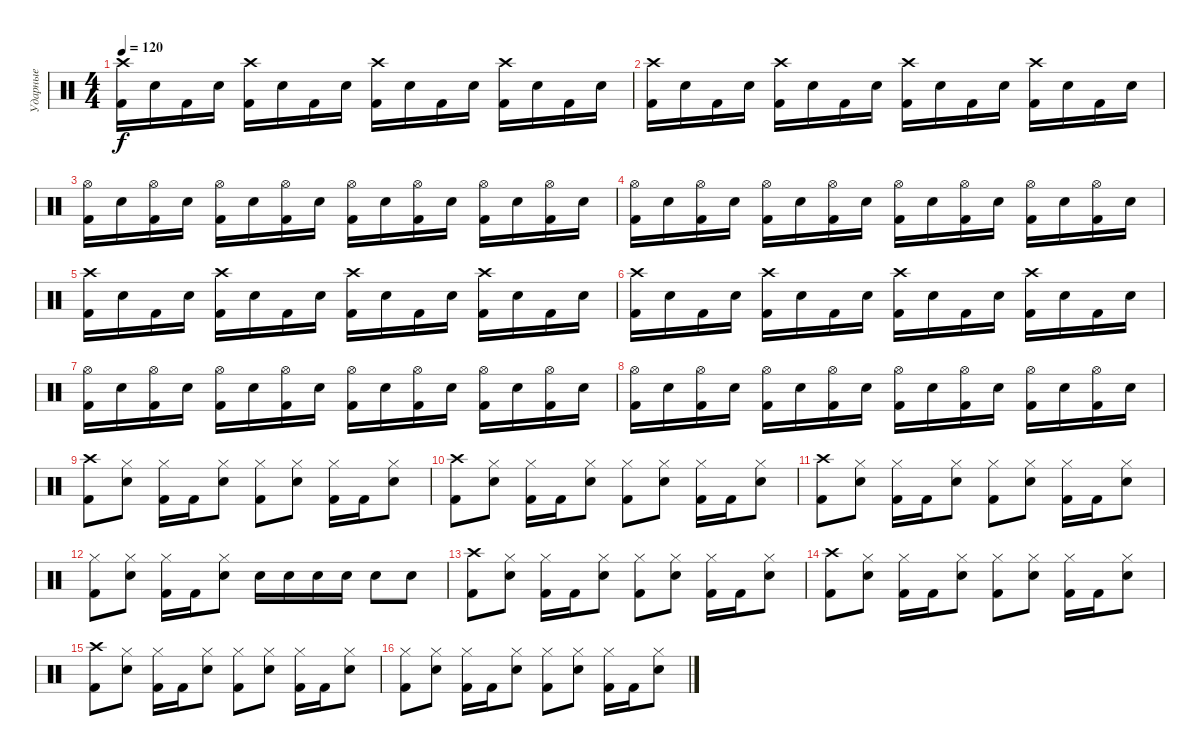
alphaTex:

\track ("Ударные" "Ударные") {instrument percussion}
\staff {score}
\articulation defaults
\ts (4 4)
\tempo 120
\clef neutral
\ks c
("Crash high (hit)" "Kick (hit) 2").16{dy f} "Electric Snare (hit)".16 "Kick (hit) 2".16 "Electric Snare (hit)".16 ("Crash high (hit)" "Kick (hit) 2").16 "Electric Snare (hit)".16 "Kick (hit) 2".16 "Electric Snare (hit)".16 ("Crash high (hit)" "Kick (hit) 2").16 "Electric Snare (hit)".16 "Kick (hit) 2".16 "Electric Snare (hit)".16 ("Crash high (hit)" "Kick (hit) 2").16 "Electric Snare (hit)".16 "Kick (hit) 2".16 "Electric Snare (hit)".16 |
("Crash high (hit)" "Kick (hit) 2").16 "Electric Snare (hit)".16 "Kick (hit) 2".16 "Electric Snare (hit)".16 ("Crash high (hit)" "Kick (hit) 2").16 "Electric Snare (hit)".16 "Kick (hit) 2".16 "Electric Snare (hit)".16 ("Crash high (hit)" "Kick (hit) 2").16 "Electric Snare (hit)".16 "Kick (hit) 2".16 "Electric Snare (hit)".16 ("Crash high (hit)" "Kick (hit) 2").16 "Electric Snare (hit)".16 "Kick (hit) 2".16 "Electric Snare (hit)".16 |
("Hi-Hat (open)" "Kick (hit) 2").16 "Electric Snare (hit)".16 ("Hi-Hat (open)" "Kick (hit) 2").16 "Electric Snare (hit)".16 ("Hi-Hat (open)" "Kick (hit) 2").16 "Electric Snare (hit)".16 ("Hi-Hat (open)" "Kick (hit) 2").16 "Electric Snare (hit)".16 ("Hi-Hat (open)" "Kick (hit) 2").16 "Electric Snare (hit)".16 ("Hi-Hat (open)" "Kick (hit) 2").16 "Electric Snare (hit)".16 ("Hi-Hat (open)" "Kick (hit) 2").16 "Electric Snare (hit)".16 ("Hi-Hat (open)" "Kick (hit) 2").16 "Electric Snare (hit)".16 |
("Hi-Hat (open)" "Kick (hit) 2").16 "Electric Snare (hit)".16 ("Hi-Hat (open)" "Kick (hit) 2").16 "Electric Snare (hit)".16 ("Hi-Hat (open)" "Kick (hit) 2").16 "Electric Snare (hit)".16 ("Hi-Hat (open)" "Kick (hit) 2").16 "Electric Snare (hit)".16 ("Hi-Hat (open)" "Kick (hit) 2").16 "Electric Snare (hit)".16 ("Hi-Hat (open)" "Kick (hit) 2").16 "Electric Snare (hit)".16 ("Hi-Hat (open)" "Kick (hit) 2").16 "Electric Snare (hit)".16 ("Hi-Hat (open)" "Kick (hit) 2").16 "Electric Snare (hit)".16 |
("Crash high (hit)" "Kick (hit) 2").16 "Electric Snare (hit)".16 "Kick (hit) 2".16 "Electric Snare (hit)".16 ("Crash high (hit)" "Kick (hit) 2").16 "Electric Snare (hit)".16 "Kick (hit) 2".16 "Electric Snare (hit)".16 ("Crash high (hit)" "Kick (hit) 2").16 "Electric Snare (hit)".16 "Kick (hit) 2".16 "Electric Snare (hit)".16 ("Crash high (hit)" "Kick (hit) 2").16 "Electric Snare (hit)".16 "Kick (hit) 2".16 "Electric Snare (hit)".16 |
("Crash high (hit)" "Kick (hit) 2").16 "Electric Snare (hit)".16 "Kick (hit) 2".16 "Electric Snare (hit)".16 ("Crash high (hit)" "Kick (hit) 2").16 "Electric Snare (hit)".16 "Kick (hit) 2".16 "Electric Snare (hit)".16 ("Crash high (hit)" "Kick (hit) 2").16 "Electric Snare (hit)".16 "Kick (hit) 2".16 "Electric Snare (hit)".16 ("Crash high (hit)" "Kick (hit) 2").16 "Electric Snare (hit)".16 "Kick (hit) 2".16 "Electric Snare (hit)".16 |
("Hi-Hat (open)" "Kick (hit) 2").16 "Electric Snare (hit)".16 ("Hi-Hat (open)" "Kick (hit) 2").16 "Electric Snare (hit)".16 ("Hi-Hat (open)" "Kick (hit) 2").16 "Electric Snare (hit)".16 ("Hi-Hat (open)" "Kick (hit) 2").16 "Electric Snare (hit)".16 ("Hi-Hat (open)" "Kick (hit) 2").16 "Electric Snare (hit)".16 ("Hi-Hat (open)" "Kick (hit) 2").16 "Electric Snare (hit)".16 ("Hi-Hat (open)" "Kick (hit) 2").16 "Electric Snare (hit)".16 ("Hi-Hat (open)" "Kick (hit) 2").16 "Electric Snare (hit)".16 |
("Hi-Hat (open)" "Kick (hit) 2").16 "Electric Snare (hit)".16 ("Hi-Hat (open)" "Kick (hit) 2").16 "Electric Snare (hit)".16 ("Hi-Hat (open)" "Kick (hit) 2").16 "Electric Snare (hit)".16 ("Hi-Hat (open)" "Kick (hit) 2").16 "Electric Snare (hit)".16 ("Hi-Hat (open)" "Kick (hit) 2").16 "Electric Snare (hit)".16 ("Hi-Hat (open)" "Kick (hit) 2").16 "Electric Snare (hit)".16 ("Hi-Hat (open)" "Kick (hit) 2").16 "Electric Snare (hit)".16 ("Hi-Hat (open)" "Kick (hit) 2").16 "Electric Snare (hit)".16 |
("Crash high (hit)" "Kick (hit) 2").8 ("Hi-Hat (closed)" "Electric Snare (hit)").8 ("Hi-Hat (closed)" "Kick (hit) 2").16 "Kick (hit) 2".16 ("Hi-Hat (closed)" "Electric Snare (hit)").8 ("Hi-Hat (closed)" "Kick (hit) 2").8 ("Hi-Hat (closed)" "Electric Snare (hit)").8 ("Hi-Hat (closed)" "Kick (hit) 2").16 "Kick (hit) 2".16 ("Hi-Hat (closed)" "Electric Snare (hit)").8 |
("Crash high (hit)" "Kick (hit) 2").8 ("Hi-Hat (closed)" "Electric Snare (hit)").8 ("Hi-Hat (closed)" "Kick (hit) 2").16 "Kick (hit) 2".16 ("Hi-Hat (closed)" "Electric Snare (hit)").8 ("Hi-Hat (closed)" "Kick (hit) 2").8 ("Hi-Hat (closed)" "Electric Snare (hit)").8 ("Hi-Hat (closed)" "Kick (hit) 2").16 "Kick (hit) 2".16 ("Hi-Hat (closed)" "Electric Snare (hit)").8 |
("Crash high (hit)" "Kick (hit) 2").8 ("Hi-Hat (closed)" "Electric Snare (hit)").8 ("Hi-Hat (closed)" "Kick (hit) 2").16 "Kick (hit) 2".16 ("Hi-Hat (closed)" "Electric Snare (hit)").8 ("Hi-Hat (closed)" "Kick (hit) 2").8 ("Hi-Hat (closed)" "Electric Snare (hit)").8 ("Hi-Hat (closed)" "Kick (hit) 2").16 "Kick (hit) 2".16 ("Hi-Hat (closed)" "Electric Snare (hit)").8 |
("Hi-Hat (closed)" "Kick (hit) 2").8 ("Hi-Hat (closed)" "Electric Snare (hit)").8 ("Hi-Hat (closed)" "Kick (hit) 2").16 "Kick (hit) 2".16 ("Hi-Hat (closed)" "Electric Snare (hit)").8 "Electric Snare (hit)".16 "Electric Snare (hit)".16 "Electric Snare (hit)".16 "Electric Snare (hit)".16 "Electric Snare (hit)".8 "Electric Snare (hit)".8 |
("Crash high (hit)" "Kick (hit) 2").8 ("Hi-Hat (closed)" "Electric Snare (hit)").8 ("Hi-Hat (closed)" "Kick (hit) 2").16 "Kick (hit) 2".16 ("Hi-Hat (closed)" "Electric Snare (hit)").8 ("Hi-Hat (closed)" "Kick (hit) 2").8 ("Hi-Hat (closed)" "Electric Snare (hit)").8 ("Hi-Hat (closed)" "Kick (hit) 2").16 "Kick (hit) 2".16 ("Hi-Hat (closed)" "Electric Snare (hit)").8 |
("Crash high (hit)" "Kick (hit) 2").8 ("Hi-Hat (closed)" "Electric Snare (hit)").8 ("Hi-Hat (closed)" "Kick (hit) 2").16 "Kick (hit) 2".16 ("Hi-Hat (closed)" "Electric Snare (hit)").8 ("Hi-Hat (closed)" "Kick (hit) 2").8 ("Hi-Hat (closed)" "Electric Snare (hit)").8 ("Hi-Hat (closed)" "Kick (hit) 2").16 "Kick (hit) 2".16 ("Hi-Hat (closed)" "Electric Snare (hit)").8 |
("Crash high (hit)" "Kick (hit) 2").8 ("Hi-Hat (closed)" "Electric Snare (hit)").8 ("Hi-Hat (closed)" "Kick (hit) 2").16 "Kick (hit) 2".16 ("Hi-Hat (closed)" "Electric Snare (hit)").8 ("Hi-Hat (closed)" "Kick (hit) 2").8 ("Hi-Hat (closed)" "Electric Snare (hit)").8 ("Hi-Hat (closed)" "Kick (hit) 2").16 "Kick (hit) 2".16 ("Hi-Hat (closed)" "Electric Snare (hit)").8 |
("Hi-Hat (closed)" "Kick (hit) 2").8 ("Hi-Hat (closed)" "Electric Snare (hit)").8 ("Hi-Hat (closed)" "Kick (hit) 2").16 "Kick (hit) 2".16 ("Hi-Hat (closed)" "Electric Snare (hit)").8 ("Hi-Hat (closed)" "Kick (hit) 2").8 ("Hi-Hat (closed)" "Electric Snare (hit)").8 ("Hi-Hat (closed)" "Kick (hit) 2").16 "Kick (hit) 2".16 ("Hi-Hat (closed)" "Electric Snare (hit)").8
